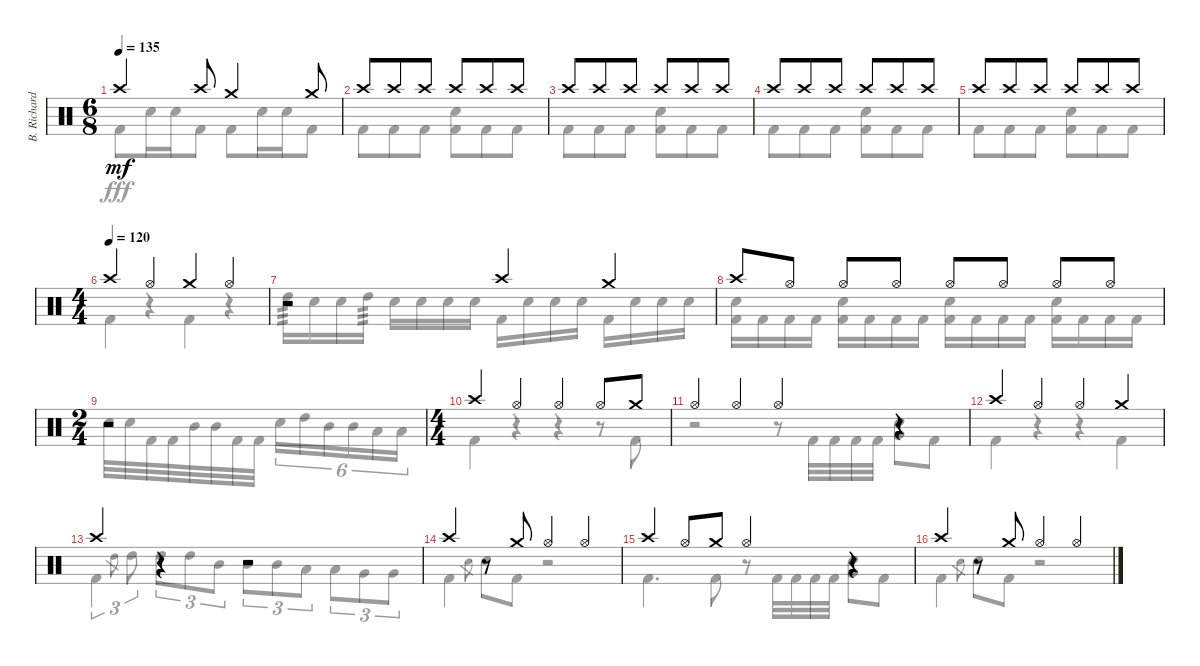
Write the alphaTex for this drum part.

\track ("B. Richardson Drums" "B. Richard") {instrument percussion}
\staff {score}
\articulation defaults
\voice
\ts (6 8)
\tempo 135
\clef neutral
\ks c "Crash high (hit)".4{dy mf} "Crash high (hit)".8 "Crash medium (hit)".4 "Crash medium (hit)".8
|
"Crash high (hit)".8 "Crash high (hit)".8 "Crash high (hit)".8 "Crash high (hit)".8 "Crash high (hit)".8 "Crash high (hit)".8 |
"Crash high (hit)".8 "Crash high (hit)".8 "Crash high (hit)".8 "Crash high (hit)".8 "Crash high (hit)".8 "Crash high (hit)".8 |
"Crash high (hit)".8 "Crash high (hit)".8 "Crash high (hit)".8 "Crash high (hit)".8 "Crash high (hit)".8 "Crash high (hit)".8 |
"Crash high (hit)".8 "Crash high (hit)".8 "Crash high (hit)".8 "Crash high (hit)".8 "Crash high (hit)".8 "Crash high (hit)".8 |
\ts (4 4)
\tempo (120)
"Crash high (hit)".4 "Hi-Hat (open)".4 "Crash medium (hit)".4 "Hi-Hat (open)".4 |
r.2 "Crash high (hit)".4 "Crash medium (hit)".4 |
"Crash high (hit)".8 "Hi-Hat (open)".8 "Hi-Hat (open)".8 "Hi-Hat (open)".8 "Hi-Hat (open)".8 "Hi-Hat (open)".8 "Hi-Hat (open)".8 "Hi-Hat (open)".8 |
\ts (2 4)
r.2 |
\ts (4 4)
"Crash high (hit)".4 "Hi-Hat (open)".4 "Hi-Hat (open)".4 "Hi-Hat (open)".8 "Crash medium (hit)".8 |
"Hi-Hat (open)".4 "Hi-Hat (open)".4 "Hi-Hat (open)".4 r.4 |
"Crash high (hit)".4 "Hi-Hat (open)".4 "Hi-Hat (open)".4 "Crash medium (hit)".4 |
"Crash high (hit)".4 r.4 r.2 |
"Crash high (hit)".4 r.8 "Crash medium (hit)".8 "Hi-Hat (open)".4 "Hi-Hat (open)".4 |
"Crash high (hit)".4 "Hi-Hat (open)".8 "Crash medium (hit)".8 "Hi-Hat (open)".4 r.4 |
"Crash high (hit)".4 r.8 "Crash medium (hit)".8 "Hi-Hat (open)".4 "Hi-Hat (open)".4
\voice
\clef neutral
\ottava regular
\simile none
\ks c "Kick (hit) 2".8{dy fff} "Electric Snare (hit)".16 "Electric Snare (hit)".16 "Kick (hit) 2".8 "Kick (hit) 2".8 "Electric Snare (hit)".16 "Electric Snare (hit)".16 "Kick (hit) 2".8
|
"Kick (hit) 2".8 "Kick (hit) 2".8 "Kick (hit) 2".8 ("Electric Snare (hit)" "Kick (hit) 2").8 "Kick (hit) 2".8 "Kick (hit) 2".8 |
"Kick (hit) 2".8 "Kick (hit) 2".8 "Kick (hit) 2".8 ("Electric Snare (hit)" "Kick (hit) 2").8 "Kick (hit) 2".8 "Kick (hit) 2".8 |
"Kick (hit) 2".8 "Kick (hit) 2".8 "Kick (hit) 2".8 ("Electric Snare (hit)" "Kick (hit) 2").8 "Kick (hit) 2".8 "Kick (hit) 2".8 |
"Kick (hit) 2".8 "Kick (hit) 2".8 "Kick (hit) 2".8 ("Electric Snare (hit)" "Kick (hit) 2").8 "Kick (hit) 2".8 "Kick (hit) 2".8 |
"Kick (hit) 2".4 r.4 "Kick (hit) 2".4 r.4 |
"High Tom (hit)".16{tp 3} "Electric Snare (hit)".16 "Electric Snare (hit)".16 "High Tom (hit)".16{tp 3} "Electric Snare (hit)".16 "Electric Snare (hit)".16 "Electric Snare (hit)".16 "Electric Snare (hit)".16 "Kick (hit) 2".16 "Electric Snare (hit)".16 "Electric Snare (hit)".16 "Electric Snare (hit)".16 "Kick (hit) 2".16 "Electric Snare (hit)".16 "Electric Snare (hit)".16 "Electric Snare (hit)".16 |
("Electric Snare (hit)" "Kick (hit) 2").16 "Kick (hit) 2".16 "Kick (hit) 2".16 "Kick (hit) 2".16 ("Electric Snare (hit)" "Kick (hit) 2").16 "Kick (hit) 2".16 "Kick (hit) 2".16 "Kick (hit) 2".16 ("Electric Snare (hit)" "Kick (hit) 2").16 "Kick (hit) 2".16 "Kick (hit) 2".16 "Kick (hit) 2".16 ("Electric Snare (hit)" "Kick (hit) 2").16 "Kick (hit) 2".16 "Kick (hit) 2".16 "Kick (hit) 2".16 |
"Electric Snare (hit)".32 "Electric Snare (hit)".32 "Kick (hit) 2".32 "Kick (hit) 2".32 "Mid Tom (hit)".32 "Mid Tom (hit)".32 "Kick (hit) 2".32 "Kick (hit) 2".32 "Electric Snare (hit)".16{tu (6 4)} "High Tom (hit)".16{tu (6 4)} "Mid Tom (hit)".16{tu (6 4)} "Mid Tom (hit)".16{tu (6 4)} "Low Tom (hit)".16{tu (6 4)} "Low Tom (hit)".16{tu (6 4)} |
"Kick (hit) 2".4 r.4 r.4 r.8 "Kick (hit) 2".8 |
r.2 r.8 "Kick (hit) 2".32 "Kick (hit) 2".32 "Kick (hit) 2".32 "Kick (hit) 2".32 ("Electric Snare (hit)" "Very Low Tom (hit)").8 "Kick (hit) 2".8 |
"Kick (hit) 2".4 r.4 r.4 "Kick (hit) 2".4 |
"Kick (hit) 2".4{tu (3 2)} "High Tom (hit)".8{gr} "High Tom (hit)".8{tu (3 2)} "High Tom (hit)".8{tu (3 2)} "High Tom (hit)".8{tu (3 2)} "Mid Tom (hit)".8{tu (3 2)} "Mid Tom (hit)".8{tu (3 2)} "Mid Tom (hit)".8{tu (3 2)} "Low Tom (hit)".8{tu (3 2)} "Low Tom (hit)".8{tu (3 2)} "Very Low Tom (hit)".8{tu (3 2)} "Very Low Tom (hit)".8{tu (3 2)} |
"Kick (hit) 2".4 "Electric Snare (hit)".8{gr} "Electric Snare (hit)".8 "Kick (hit) 2".8 r.2 |
"Kick (hit) 2".4{d} "Kick (hit) 2".8 r.8 "Kick (hit) 2".32 "Kick (hit) 2".32 "Kick (hit) 2".32 "Kick (hit) 2".32 ("Electric Snare (hit)" "Very Low Tom (hit)").8 "Kick (hit) 2".8 |
"Kick (hit) 2".4 "Electric Snare (hit)".8{gr} "Electric Snare (hit)".8 "Kick (hit) 2".8 r.2
